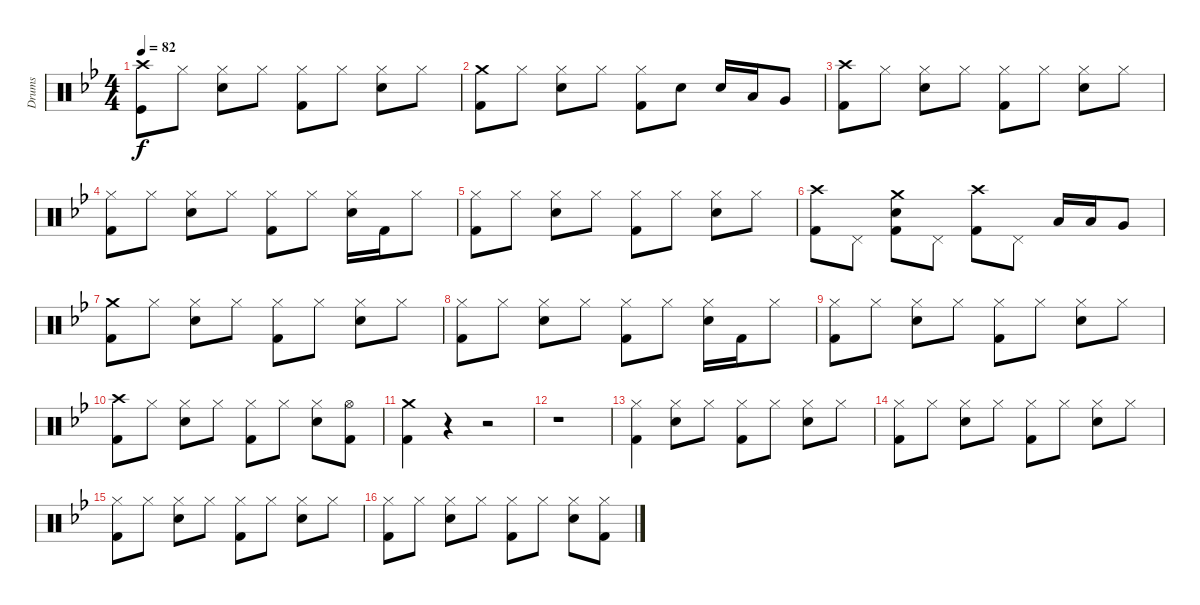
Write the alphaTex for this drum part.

\track ("Drums" "Drums") {instrument percussion}
\staff {score}
\articulation defaults
\ts (4 4)
\tempo 82
\clef neutral
\ks bb
("Crash high (hit)" "Kick (hit)").8{dy f} "Hi-Hat (closed)".8 ("Hi-Hat (closed)" "Snare (hit) 2").8 "Hi-Hat (closed)".8 ("Hi-Hat (closed)" "Kick (hit) 2").8 "Hi-Hat (closed)".8 ("Hi-Hat (closed)" "Snare (hit) 2").8 "Hi-Hat (closed)".8 |
("Crash medium (hit)" "Kick (hit) 2").8 "Hi-Hat (closed)".8 ("Hi-Hat (closed)" "Snare (hit) 2").8 "Hi-Hat (closed)".8 ("Hi-Hat (closed)" "Kick (hit) 2").8 "Snare (hit) 2".8 "Snare (hit) 2".16 "Low Tom (hit)".16 "Very Low Tom (hit)".8 |
("Crash high (hit)" "Kick (hit) 2").8 "Hi-Hat (closed)".8 ("Hi-Hat (closed)" "Snare (hit) 2").8 "Hi-Hat (closed)".8 ("Hi-Hat (closed)" "Kick (hit) 2").8 "Hi-Hat (closed)".8 ("Hi-Hat (closed)" "Snare (hit) 2").8 "Hi-Hat (closed)".8 |
("Hi-Hat (closed)" "Kick (hit) 2").8 "Hi-Hat (closed)".8 ("Hi-Hat (closed)" "Snare (hit) 2").8 "Hi-Hat (closed)".8 ("Hi-Hat (closed)" "Kick (hit) 2").8 "Hi-Hat (closed)".8 ("Hi-Hat (closed)" "Snare (hit) 2").16 "Kick (hit) 2".16 "Hi-Hat (closed)".8 |
("Hi-Hat (closed)" "Kick (hit) 2").8 "Hi-Hat (closed)".8 ("Hi-Hat (closed)" "Snare (hit) 2").8 "Hi-Hat (closed)".8 ("Hi-Hat (closed)" "Kick (hit) 2").8 "Hi-Hat (closed)".8 ("Hi-Hat (closed)" "Snare (hit) 2").8 "Hi-Hat (closed)".8 |
("Crash high (hit)" "Kick (hit) 2").8 "Pedal Hi-Hat (hit)".8 ("Crash medium (hit)" "Snare (hit) 2" "Kick (hit) 2").8 "Pedal Hi-Hat (hit)".8 ("Crash high (hit)" "Kick (hit) 2").8 "Pedal Hi-Hat (hit)".8 "Low Tom (hit)".16 "Low Tom (hit)".16 "Very Low Tom (hit)".8 |
("Crash medium (hit)" "Kick (hit) 2").8 "Hi-Hat (closed)".8 ("Hi-Hat (closed)" "Snare (hit) 2").8 "Hi-Hat (closed)".8 ("Hi-Hat (closed)" "Kick (hit) 2").8 "Hi-Hat (closed)".8 ("Hi-Hat (closed)" "Snare (hit) 2").8 "Hi-Hat (closed)".8 |
("Hi-Hat (closed)" "Kick (hit) 2").8 "Hi-Hat (closed)".8 ("Hi-Hat (closed)" "Snare (hit) 2").8 "Hi-Hat (closed)".8 ("Hi-Hat (closed)" "Kick (hit) 2").8 "Hi-Hat (closed)".8 ("Hi-Hat (closed)" "Snare (hit) 2").16 "Kick (hit) 2".16 "Hi-Hat (closed)".8 |
("Hi-Hat (closed)" "Kick (hit) 2").8 "Hi-Hat (closed)".8 ("Hi-Hat (closed)" "Snare (hit) 2").8 "Hi-Hat (closed)".8 ("Hi-Hat (closed)" "Kick (hit) 2").8 "Hi-Hat (closed)".8 ("Hi-Hat (closed)" "Snare (hit) 2").8 "Hi-Hat (closed)".8 |
("Crash high (hit)" "Kick (hit) 2").8 "Hi-Hat (closed)".8 ("Hi-Hat (closed)" "Snare (hit) 2").8 "Hi-Hat (closed)".8 ("Hi-Hat (closed)" "Kick (hit) 2").8 "Hi-Hat (closed)".8 ("Hi-Hat (closed)" "Snare (hit) 2").8 ("Hi-Hat (open)" "Kick (hit) 2").8 |
("Crash medium (hit)" "Kick (hit) 2").4 r.4 r.2 |
r.1 |
("Hi-Hat (closed)" "Kick (hit) 2").4 ("Hi-Hat (closed)" "Snare (hit) 2").8 "Hi-Hat (closed)".8 ("Hi-Hat (closed)" "Kick (hit) 2").8 "Hi-Hat (closed)".8 ("Hi-Hat (closed)" "Snare (hit) 2").8 "Hi-Hat (closed)".8 |
("Hi-Hat (closed)" "Kick (hit) 2").8 "Hi-Hat (closed)".8 ("Hi-Hat (closed)" "Snare (hit) 2").8 "Hi-Hat (closed)".8 ("Hi-Hat (closed)" "Kick (hit) 2").8 "Hi-Hat (closed)".8 ("Hi-Hat (closed)" "Snare (hit) 2").8 "Hi-Hat (closed)".8 |
("Hi-Hat (closed)" "Kick (hit) 2").8 "Hi-Hat (closed)".8 ("Hi-Hat (closed)" "Snare (hit) 2").8 "Hi-Hat (closed)".8 ("Hi-Hat (closed)" "Kick (hit) 2").8 "Hi-Hat (closed)".8 ("Hi-Hat (closed)" "Snare (hit) 2").8 "Hi-Hat (closed)".8 |
("Hi-Hat (closed)" "Kick (hit) 2").8 "Hi-Hat (closed)".8 ("Hi-Hat (closed)" "Snare (hit) 2").8 "Hi-Hat (closed)".8 ("Hi-Hat (closed)" "Kick (hit) 2").8 "Hi-Hat (closed)".8 ("Hi-Hat (closed)" "Snare (hit) 2").8 ("Hi-Hat (closed)" "Kick (hit) 2").8
